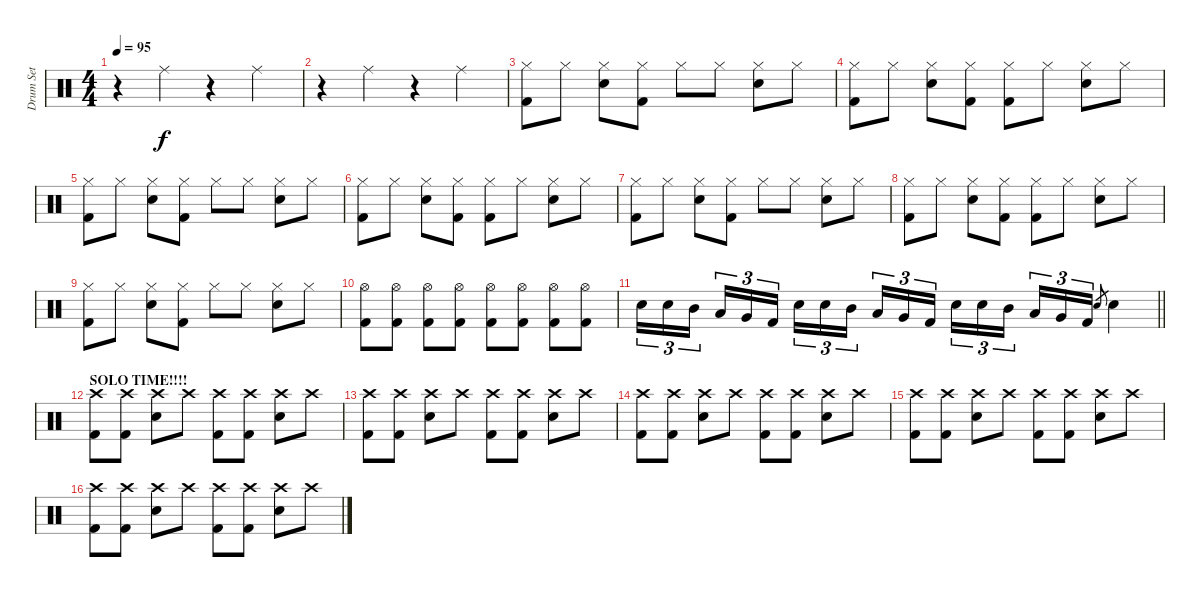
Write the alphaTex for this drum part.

\track ("Drum Set" "Drum Set") {instrument percussion}
\staff {score}
\articulation defaults
\ts (4 4)
\tempo 95
\clef neutral
\ks c
r.4{dy f} "Ride (middle)".4 r.4 "Ride (middle)".4 |
r.4 "Ride (middle)".4 r.4 "Ride (middle)".4 |
("Hi-Hat (closed)" "Kick (hit) 2").8 "Hi-Hat (closed)".8 ("Hi-Hat (closed)" "Snare (hit) 2").8 ("Hi-Hat (closed)" "Kick (hit) 2").8 "Hi-Hat (closed)".8 "Hi-Hat (closed)".8 ("Hi-Hat (closed)" "Snare (hit) 2").8 "Hi-Hat (closed)".8 |
("Hi-Hat (closed)" "Kick (hit) 2").8 "Hi-Hat (closed)".8 ("Hi-Hat (closed)" "Snare (hit) 2").8 ("Hi-Hat (closed)" "Kick (hit) 2").8 ("Hi-Hat (closed)" "Kick (hit) 2").8 "Hi-Hat (closed)".8 ("Hi-Hat (closed)" "Snare (hit) 2").8 "Hi-Hat (closed)".8 |
("Hi-Hat (closed)" "Kick (hit) 2").8 "Hi-Hat (closed)".8 ("Hi-Hat (closed)" "Snare (hit) 2").8 ("Hi-Hat (closed)" "Kick (hit) 2").8 "Hi-Hat (closed)".8 "Hi-Hat (closed)".8 ("Hi-Hat (closed)" "Snare (hit) 2").8 "Hi-Hat (closed)".8 |
("Hi-Hat (closed)" "Kick (hit) 2").8 "Hi-Hat (closed)".8 ("Hi-Hat (closed)" "Snare (hit) 2").8 ("Hi-Hat (closed)" "Kick (hit) 2").8 ("Hi-Hat (closed)" "Kick (hit) 2").8 "Hi-Hat (closed)".8 ("Hi-Hat (closed)" "Snare (hit) 2").8 "Hi-Hat (closed)".8 |
("Hi-Hat (closed)" "Kick (hit) 2").8 "Hi-Hat (closed)".8 ("Hi-Hat (closed)" "Snare (hit) 2").8 ("Hi-Hat (closed)" "Kick (hit) 2").8 "Hi-Hat (closed)".8 "Hi-Hat (closed)".8 ("Hi-Hat (closed)" "Snare (hit) 2").8 "Hi-Hat (closed)".8 |
("Hi-Hat (closed)" "Kick (hit) 2").8 "Hi-Hat (closed)".8 ("Hi-Hat (closed)" "Snare (hit) 2").8 ("Hi-Hat (closed)" "Kick (hit) 2").8 ("Hi-Hat (closed)" "Kick (hit) 2").8 "Hi-Hat (closed)".8 ("Hi-Hat (closed)" "Snare (hit) 2").8 "Hi-Hat (closed)".8 |
("Hi-Hat (closed)" "Kick (hit) 2").8 "Hi-Hat (closed)".8 ("Hi-Hat (closed)" "Snare (hit) 2").8 ("Hi-Hat (closed)" "Kick (hit) 2").8 "Hi-Hat (closed)".8 "Hi-Hat (closed)".8 ("Hi-Hat (closed)" "Snare (hit) 2").8 "Hi-Hat (closed)".8 |
("Hi-Hat (open)" "Kick (hit) 2").8 ("Hi-Hat (open)" "Kick (hit) 2").8 ("Hi-Hat (open)" "Kick (hit) 2").8 ("Hi-Hat (open)" "Kick (hit) 2").8 ("Hi-Hat (open)" "Kick (hit) 2").8 ("Hi-Hat (open)" "Kick (hit) 2").8 ("Hi-Hat (open)" "Kick (hit) 2").8 ("Hi-Hat (open)" "Kick (hit) 2").8 |
\barLineRight lightlight "Snare (hit) 2".16{tu (3 2)} "Snare (hit) 2".16{tu (3 2)} "Mid Tom (hit)".16{tu (3 2) beam splitsecondary} "Low Tom (hit)".16{tu (3 2)} "Very Low Tom (hit)".16{tu (3 2)} "Kick (hit) 2".16{tu (3 2)} "Snare (hit) 2".16{tu (3 2)} "Snare (hit) 2".16{tu (3 2)} "Mid Tom (hit)".16{tu (3 2) beam splitsecondary} "Low Tom (hit)".16{tu (3 2)} "Very Low Tom (hit)".16{tu (3 2)} "Kick (hit) 2".16{tu (3 2)} "Snare (hit) 2".16{tu (3 2)} "Snare (hit) 2".16{tu (3 2)} "Mid Tom (hit)".16{tu (3 2) beam splitsecondary} "Low Tom (hit)".16{tu (3 2)} "Very Low Tom (hit)".16{tu (3 2)} "Kick (hit) 2".16{tu (3 2)} "Snare (hit) 2".8{gr} "Snare (hit) 2".4
|
\section ("" "SOLO TIME!!!!")
("Crash high (hit)" "Kick (hit) 2").8 ("Crash high (hit)" "Kick (hit) 2").8 ("Crash high (hit)" "Snare (hit) 2").8 "Crash high (hit)".8 ("Crash high (hit)" "Kick (hit) 2").8 ("Crash high (hit)" "Kick (hit) 2").8 ("Crash high (hit)" "Snare (hit) 2").8 "Crash high (hit)".8 |
("Crash high (hit)" "Kick (hit) 2").8 ("Crash high (hit)" "Kick (hit) 2").8 ("Crash high (hit)" "Snare (hit) 2").8 "Crash high (hit)".8 ("Crash high (hit)" "Kick (hit) 2").8 ("Crash high (hit)" "Kick (hit) 2").8 ("Crash high (hit)" "Snare (hit) 2").8 "Crash high (hit)".8 |
("Crash high (hit)" "Kick (hit) 2").8 ("Crash high (hit)" "Kick (hit) 2").8 ("Crash high (hit)" "Snare (hit) 2").8 "Crash high (hit)".8 ("Crash high (hit)" "Kick (hit) 2").8 ("Crash high (hit)" "Kick (hit) 2").8 ("Crash high (hit)" "Snare (hit) 2").8 "Crash high (hit)".8 |
("Crash high (hit)" "Kick (hit) 2").8 ("Crash high (hit)" "Kick (hit) 2").8 ("Crash high (hit)" "Snare (hit) 2").8 "Crash high (hit)".8 ("Crash high (hit)" "Kick (hit) 2").8 ("Crash high (hit)" "Kick (hit) 2").8 ("Crash high (hit)" "Snare (hit) 2").8 "Crash high (hit)".8 |
("Crash high (hit)" "Kick (hit) 2").8 ("Crash high (hit)" "Kick (hit) 2").8 ("Crash high (hit)" "Snare (hit) 2").8 "Crash high (hit)".8 ("Crash high (hit)" "Kick (hit) 2").8 ("Crash high (hit)" "Kick (hit) 2").8 ("Crash high (hit)" "Snare (hit) 2").8 "Crash high (hit)".8
